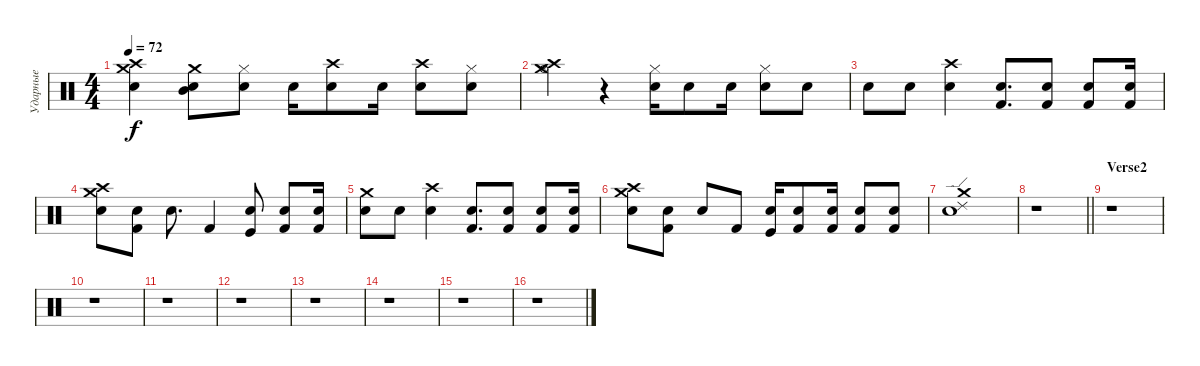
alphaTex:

\track ("Ударные" "Ударные") {instrument percussion}
\staff {score}
\articulation defaults
\ts (4 4)
\tempo 72
\clef neutral
\ks c
("Crash high (hit)" "Electric Snare (hit)" "Crash medium (hit)").4{dy f} ("Crash medium (hit)" "Mid Tom (hit)" "Snare (hit) 2").8 ("Electric Snare (hit)" "Hi-Hat (closed)").8 "Snare (hit) 2".16 ("Electric Snare (hit)" "Crash high (hit)").8 "Snare (hit) 2".16 ("Electric Snare (hit)" "Crash high (hit)").8 ("Electric Snare (hit)" "Hi-Hat (closed)").8 |
("Crash high (hit)" "Hi-Hat (open)" "Crash medium (hit)").4 r.4 ("Electric Snare (hit)" "Hi-Hat (closed)").16 "Snare (hit) 2".8 "Electric Snare (hit)".16 ("Snare (hit) 2" "Hi-Hat (closed)").8 "Snare (hit) 2".8 |
"Electric Snare (hit)".8 "Snare (hit) 2".8 ("Electric Snare (hit)" "Crash high (hit)").4 ("Electric Snare (hit)" "Kick (hit) 2").8{d} ("Snare (hit) 2" "Kick (hit) 2").8 ("Electric Snare (hit)" "Kick (hit) 2").8 ("Electric Snare (hit)" "Kick (hit) 2").16 |
("Crash medium (hit)" "Crash high (hit)" "Electric Snare (hit)").8 ("Electric Snare (hit)" "Kick (hit) 2").8 "Electric Snare (hit)".8{d} "Kick (hit) 2".4 ("Electric Snare (hit)" "Kick (hit)").8 ("Electric Snare (hit)" "Kick (hit) 2").8 ("Electric Snare (hit)" "Kick (hit) 2").16 |
("Electric Snare (hit)" "Crash medium (hit)").8 "Snare (hit) 2".8 ("Electric Snare (hit)" "Crash high (hit)").4 ("Electric Snare (hit)" "Kick (hit) 2").8{d} ("Snare (hit) 2" "Kick (hit) 2").8 ("Electric Snare (hit)" "Kick (hit) 2").8 ("Electric Snare (hit)" "Kick (hit) 2").16 |
("Crash medium (hit)" "Crash high (hit)" "Electric Snare (hit)").8 ("Electric Snare (hit)" "Kick (hit) 2").8 "Electric Snare (hit)".8 "Kick (hit) 2".8 ("Electric Snare (hit)" "Kick (hit)").16 ("Electric Snare (hit)" "Kick (hit) 2").8 ("Electric Snare (hit)" "Kick (hit) 2").16 ("Electric Snare (hit)" "Kick (hit) 2").8 ("Electric Snare (hit)" "Kick (hit) 2").8 |
("Electric Snare (hit)" "Ride (edge) 2" "Crash medium (hit)").1 |
\barLineRight lightlight
r.1 |
\section ("" "Verse2")
r.1 |
r.1 |
r.1 |
r.1 |
r.1 |
r.1 |
r.1 |
r.1
